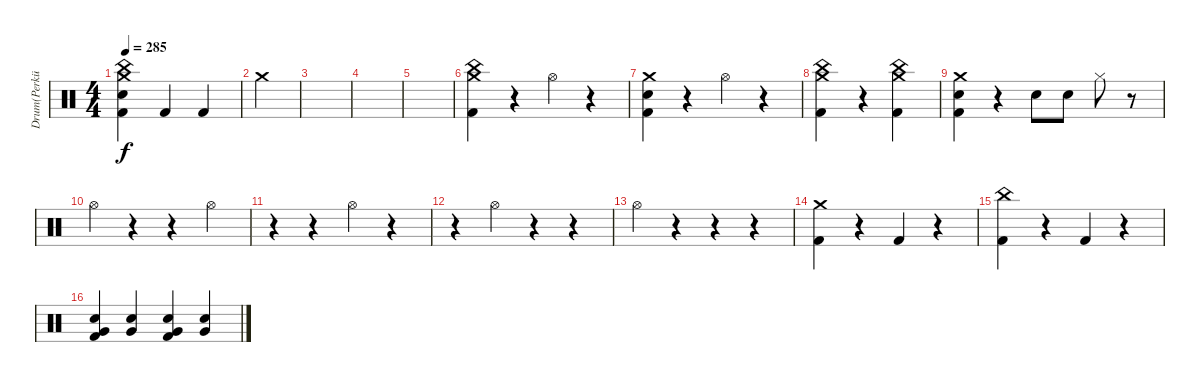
\track ("Drum(Perküsyon)" "Drum(Perkü") {instrument percussion}
\staff {score}
\articulation defaults
\ts (4 4)
\tempo 285
\clef neutral
\ks c
("Crash medium (hit)" "China (hit)" "Kick (hit) 2" "Electric Snare (hit)").4{dy f} "Kick (hit) 2".4 "Kick (hit) 2".4 |
"Crash medium (hit)".4 |
|
|
|
("Crash medium (hit)" "China (hit)" "Kick (hit) 2").4 r.4 "Hi-Hat (open)".4 r.4 |
("Crash medium (hit)" "Electric Snare (hit)" "Kick (hit) 2").4 r.4 "Hi-Hat (open)".4 r.4 |
("Crash medium (hit)" "China (hit)" "Kick (hit) 2").4 r.4 ("Crash medium (hit)" "China (hit)" "Kick (hit) 2").4 |
("Crash medium (hit)" "Electric Snare (hit)" "Kick (hit) 2").4 r.4 "Electric Snare (hit)".8 "Electric Snare (hit)".8 "Hi-Hat (closed)".8 r.8 |
"Hi-Hat (open)".4 r.4 r.4 "Hi-Hat (open)".4 |
r.4 r.4 "Hi-Hat (open)".4 r.4 |
r.4 "Hi-Hat (open)".4 r.4 r.4 |
"Hi-Hat (open)".4 r.4 r.4 r.4 |
("Kick (hit) 2" "Crash medium (hit)").4 r.4 "Kick (hit) 2".4 r.4 |
("Kick (hit) 2" "China (hit)").4 r.4 "Kick (hit) 2".4 r.4 |
("Kick (hit) 2" "Electric Snare (hit)" "Very Low Tom (hit)").4 ("Electric Snare (hit)" "Very Low Tom (hit)").4 ("Kick (hit) 2" "Electric Snare (hit)" "Very Low Tom (hit)").4 ("Electric Snare (hit)" "Very Low Tom (hit)").4
